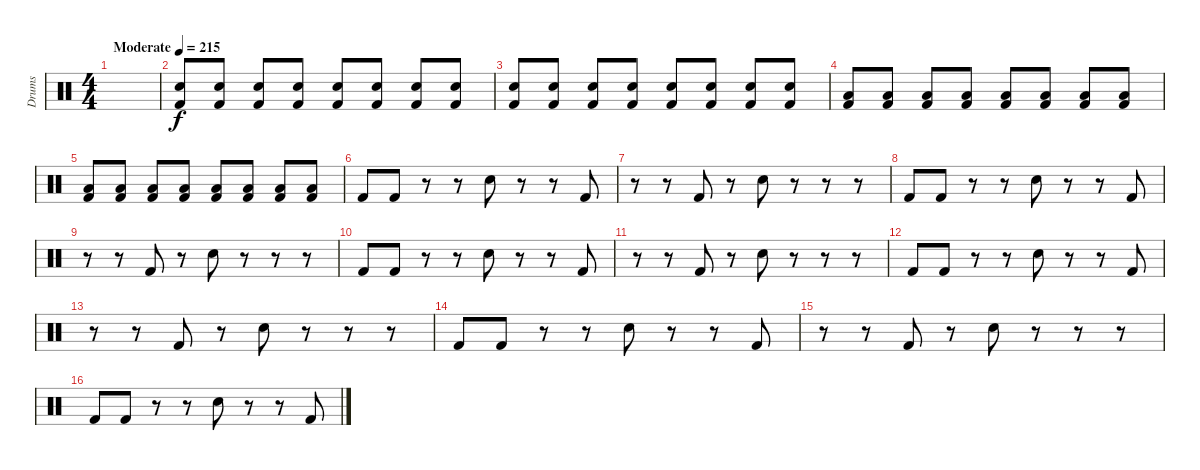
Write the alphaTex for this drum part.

\track ("Drums" "Drums") {instrument percussion}
\staff {score}
\articulation defaults
\ts (4 4)
\tempo (215 "Moderate")
\clef neutral
\ks c
|
("Kick (hit) 2" "Electric Snare (hit)").8 ("Kick (hit) 2" "Electric Snare (hit)").8 ("Kick (hit) 2" "Electric Snare (hit)").8 ("Kick (hit) 2" "Electric Snare (hit)").8 ("Kick (hit) 2" "Electric Snare (hit)").8 ("Kick (hit) 2" "Electric Snare (hit)").8 ("Kick (hit) 2" "Electric Snare (hit)").8 ("Kick (hit) 2" "Electric Snare (hit)").8 |
("Kick (hit) 2" "Snare (hit) 2").8 ("Kick (hit) 2" "Snare (hit) 2").8 ("Kick (hit) 2" "Snare (hit) 2").8 ("Kick (hit) 2" "Snare (hit) 2").8 ("Kick (hit) 2" "Snare (hit) 2").8 ("Kick (hit) 2" "Snare (hit) 2").8 ("Kick (hit) 2" "Snare (hit) 2").8 ("Kick (hit) 2" "Snare (hit) 2").8 |
("Kick (hit) 2" "Low Tom (hit)").8 ("Kick (hit) 2" "Low Tom (hit)").8 ("Kick (hit) 2" "Low Tom (hit)").8 ("Kick (hit) 2" "Low Tom (hit)").8 ("Kick (hit) 2" "Low Tom (hit)").8 ("Kick (hit) 2" "Low Tom (hit)").8 ("Kick (hit) 2" "Low Tom (hit)").8 ("Kick (hit) 2" "Low Tom (hit)").8 |
("Kick (hit) 2" "Low Floor Tom (hit)").8 ("Kick (hit) 2" "Low Floor Tom (hit)").8 ("Kick (hit) 2" "Low Floor Tom (hit)").8 ("Kick (hit) 2" "Low Floor Tom (hit)").8 ("Kick (hit) 2" "Low Floor Tom (hit)").8 ("Kick (hit) 2" "Low Floor Tom (hit)").8 ("Kick (hit) 2" "Low Floor Tom (hit)").8 ("Kick (hit) 2" "Low Floor Tom (hit)").8 |
"Kick (hit) 2".8 "Kick (hit) 2".8 r.8 r.8 "Electric Snare (hit)".8 r.8 r.8 "Kick (hit) 2".8 |
r.8 r.8 "Kick (hit) 2".8 r.8 "Electric Snare (hit)".8 r.8 r.8 r.8 |
"Kick (hit) 2".8 "Kick (hit) 2".8 r.8 r.8 "Electric Snare (hit)".8 r.8 r.8 "Kick (hit) 2".8 |
r.8 r.8 "Kick (hit) 2".8 r.8 "Electric Snare (hit)".8 r.8 r.8 r.8 |
"Kick (hit) 2".8 "Kick (hit) 2".8 r.8 r.8 "Electric Snare (hit)".8 r.8 r.8 "Kick (hit) 2".8 |
r.8 r.8 "Kick (hit) 2".8 r.8 "Electric Snare (hit)".8 r.8 r.8 r.8 |
"Kick (hit) 2".8 "Kick (hit) 2".8 r.8 r.8 "Electric Snare (hit)".8 r.8 r.8 "Kick (hit) 2".8 |
r.8 r.8 "Kick (hit) 2".8 r.8 "Electric Snare (hit)".8 r.8 r.8 r.8 |
"Kick (hit) 2".8 "Kick (hit) 2".8 r.8 r.8 "Electric Snare (hit)".8 r.8 r.8 "Kick (hit) 2".8 |
r.8 r.8 "Kick (hit) 2".8 r.8 "Electric Snare (hit)".8 r.8 r.8 r.8 |
"Kick (hit) 2".8 "Kick (hit) 2".8 r.8 r.8 "Electric Snare (hit)".8 r.8 r.8 "Kick (hit) 2".8
